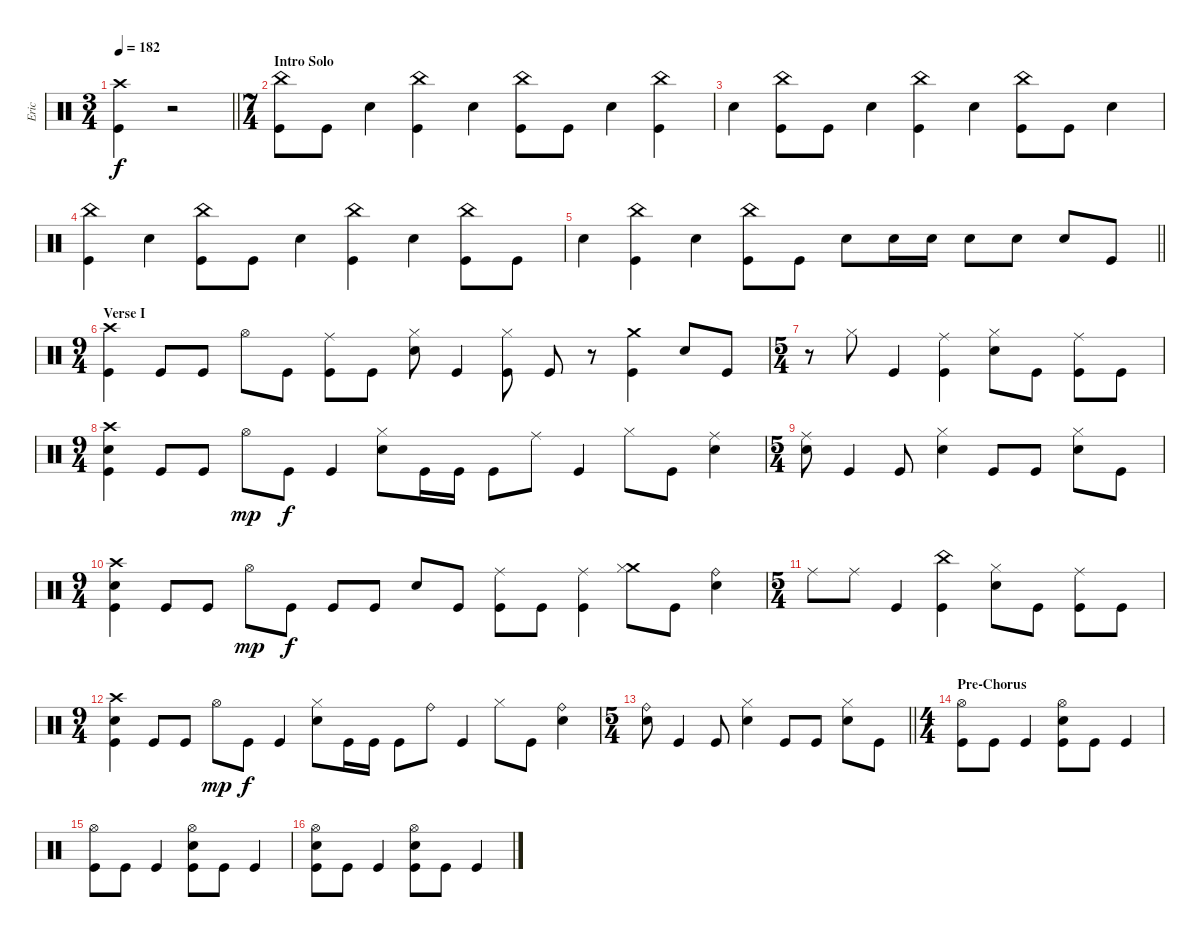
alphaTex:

\track ("Eric" "Eric") {instrument percussion}
\staff {score}
\articulation defaults
\ts (3 4)
\tempo 182
\clef neutral
\barLineRight lightlight
\ks c
("Crash high (hit)" "Kick (hit)").4{dy f} r.2 |
\ts (7 4)
\section ("" "Intro Solo")
("China (hit)" "Kick (hit)").8 "Kick (hit)".8 "Snare (hit) 2".4 ("China (hit)" "Kick (hit)").4 "Snare (hit) 2".4 ("China (hit)" "Kick (hit)").8 "Kick (hit)".8 "Snare (hit) 2".4 ("China (hit)" "Kick (hit)").4 |
"Snare (hit) 2".4 ("China (hit)" "Kick (hit)").8 "Kick (hit)".8 "Snare (hit) 2".4 ("China (hit)" "Kick (hit)").4 "Snare (hit) 2".4 ("China (hit)" "Kick (hit)").8 "Kick (hit)".8 "Snare (hit) 2".4 |
("China (hit)" "Kick (hit)").4 "Snare (hit) 2".4 ("China (hit)" "Kick (hit)").8 "Kick (hit)".8 "Snare (hit) 2".4 ("China (hit)" "Kick (hit)").4 "Snare (hit) 2".4 ("China (hit)" "Kick (hit)").8 "Kick (hit)".8 |
\barLineRight lightlight "Snare (hit) 2".4
("China (hit)" "Kick (hit)").4 "Snare (hit) 2".4 ("China (hit)" "Kick (hit)").8 "Kick (hit)".8 "Snare (hit) 2".8 "Snare (hit) 2".16 "Snare (hit) 2".16 "Snare (hit) 2".8 "Snare (hit) 2".8 "Snare (hit) 2".8 "Kick (hit)".8 |
\ts (9 4)
\section ("" "Verse I")
("Crash high (hit)" "Kick (hit)").4 "Kick (hit)".8 "Kick (hit)".8 "Hi-Hat (open)".8 "Kick (hit)".8 ("Ride (middle)" "Kick (hit)").8 "Kick (hit)".8 ("Hi-Hat (closed)" "Snare (hit) 2").8 "Kick (hit)".4 ("Hi-Hat (closed)" "Kick (hit)").8 "Kick (hit)".8 r.8 ("Crash medium (hit)" "Kick (hit)").4 "Snare (hit) 2".8 "Kick (hit)".8 |
\ts (5 4)
r.8 "Hi-Hat (closed)".8 "Kick (hit)".4 ("Ride (middle)" "Kick (hit)").4 ("Hi-Hat (closed)" "Snare (hit) 2").8 "Kick (hit)".8 ("Ride (middle)" "Kick (hit)").8 "Kick (hit)".8 |
\ts (9 4)
("Crash high (hit)" "Snare (hit) 2" "Kick (hit)").4 "Kick (hit)".8 "Kick (hit)".8 "Hi-Hat (open)".8{dy mp} "Kick (hit)".8{dy f} "Kick (hit)".4 ("Hi-Hat (closed)" "Snare (hit) 2").8 "Kick (hit)".16 "Kick (hit)".16 "Kick (hit)".8 "Ride (middle)".8 "Kick (hit)".4 "Hi-Hat (closed)".8 "Kick (hit)".8 ("Ride (middle)" "Snare (hit) 2").4 |
\ts (5 4)
("Ride (middle)" "Snare (hit) 2").8 "Kick (hit)".4 "Kick (hit)".8 ("Hi-Hat (closed)" "Snare (hit) 2").4 "Kick (hit)".8 "Kick (hit)".8 ("Hi-Hat (closed)" "Snare (hit) 2").8 "Kick (hit)".8 |
\ts (9 4)
("Crash high (hit)" "Snare (hit) 2" "Kick (hit)").4 "Kick (hit)".8 "Kick (hit)".8 "Hi-Hat (open)".8{dy mp} "Kick (hit)".8{dy f} "Kick (hit)".8 "Kick (hit)".8 "Snare (hit) 2".8 "Kick (hit)".8 ("Ride (middle)" "Kick (hit)").8 "Kick (hit)".8 ("Ride (middle)" "Kick (hit)").4 ("Crash medium (hit)" "Hi-Hat (closed)").8 "Kick (hit)".8 ("Ride (bell)" "Snare (hit) 2").4 |
\ts (5 4)
"Ride (middle)".8 "Ride (middle)".8 "Kick (hit)".4 ("China (hit)" "Kick (hit)").4 ("Hi-Hat (closed)" "Snare (hit) 2").8 "Kick (hit)".8 ("Ride (middle)" "Kick (hit)").8 "Kick (hit)".8 |
\ts (9 4)
("Crash high (hit)" "Snare (hit) 2" "Kick (hit)").4 "Kick (hit)".8 "Kick (hit)".8 "Hi-Hat (open)".8{dy mp} "Kick (hit)".8{dy f} "Kick (hit)".4 ("Hi-Hat (closed)" "Snare (hit) 2").8 "Kick (hit)".16 "Kick (hit)".16 "Kick (hit)".8 "Ride (bell)".8 "Kick (hit)".4 "Hi-Hat (closed)".8 "Kick (hit)".8 ("Ride (bell)" "Snare (hit) 2").4 |
\ts (5 4)
\barLineRight lightlight
("Ride (bell)" "Snare (hit) 2").8 "Kick (hit)".4 "Kick (hit)".8 ("Hi-Hat (closed)" "Snare (hit) 2").4 "Kick (hit)".8 "Kick (hit)".8 ("Hi-Hat (closed)" "Snare (hit) 2").8 "Kick (hit)".8 |
\ts (4 4)
\section ("" "Pre-Chorus")
("Hi-Hat (open)" "Kick (hit)").8 "Kick (hit)".8 "Kick (hit)".4 ("Hi-Hat (open)" "Snare (hit) 2" "Kick (hit)").8 "Kick (hit)".8 "Kick (hit)".4 |
("Hi-Hat (open)" "Kick (hit)").8 "Kick (hit)".8 "Kick (hit)".4 ("Hi-Hat (open)" "Snare (hit) 2" "Kick (hit)").8 "Kick (hit)".8 "Kick (hit)".4 |
("Hi-Hat (open)" "Snare (hit) 2" "Kick (hit)").8 "Kick (hit)".8 "Kick (hit)".4 ("Hi-Hat (open)" "Snare (hit) 2" "Kick (hit)").8 "Kick (hit)".8 "Kick (hit)".4
